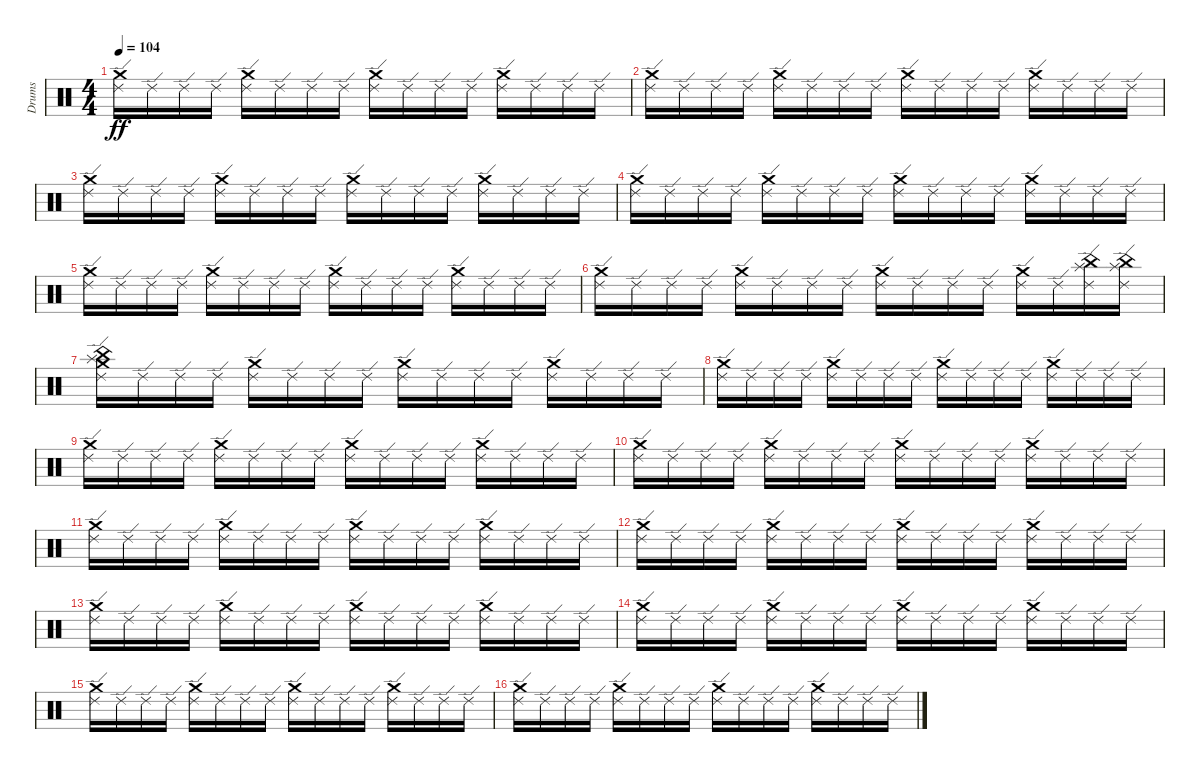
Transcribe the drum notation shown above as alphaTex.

\track ("Drums" "Drums") {instrument percussion}
\staff {score}
\articulation defaults
\ts (4 4)
\tempo 104
\clef neutral
\ks c
("Crash medium (hit)" "Ride (edge) 2").16{dy ff} "Ride (edge) 2".16 "Ride (edge) 2".16 "Ride (edge) 2".16 ("Crash medium (hit)" "Ride (edge) 2").16 "Ride (edge) 2".16 "Ride (edge) 2".16 "Ride (edge) 2".16 ("Crash medium (hit)" "Ride (edge) 2").16 "Ride (edge) 2".16 "Ride (edge) 2".16 "Ride (edge) 2".16 ("Crash medium (hit)" "Ride (edge) 2").16 "Ride (edge) 2".16 "Ride (edge) 2".16 "Ride (edge) 2".16 |
("Crash medium (hit)" "Ride (edge) 2").16 "Ride (edge) 2".16 "Ride (edge) 2".16 "Ride (edge) 2".16 ("Crash medium (hit)" "Ride (edge) 2").16 "Ride (edge) 2".16 "Ride (edge) 2".16 "Ride (edge) 2".16 ("Crash medium (hit)" "Ride (edge) 2").16 "Ride (edge) 2".16 "Ride (edge) 2".16 "Ride (edge) 2".16 ("Crash medium (hit)" "Ride (edge) 2").16 "Ride (edge) 2".16 "Ride (edge) 2".16 "Ride (edge) 2".16 |
("Crash medium (hit)" "Ride (edge) 2").16 "Ride (edge) 2".16 "Ride (edge) 2".16 "Ride (edge) 2".16 ("Crash medium (hit)" "Ride (edge) 2").16 "Ride (edge) 2".16 "Ride (edge) 2".16 "Ride (edge) 2".16 ("Crash medium (hit)" "Ride (edge) 2").16 "Ride (edge) 2".16 "Ride (edge) 2".16 "Ride (edge) 2".16 ("Crash medium (hit)" "Ride (edge) 2").16 "Ride (edge) 2".16 "Ride (edge) 2".16 "Ride (edge) 2".16 |
("Crash medium (hit)" "Ride (edge) 2").16 "Ride (edge) 2".16 "Ride (edge) 2".16 "Ride (edge) 2".16 ("Crash medium (hit)" "Ride (edge) 2").16 "Ride (edge) 2".16 "Ride (edge) 2".16 "Ride (edge) 2".16 ("Crash medium (hit)" "Ride (edge) 2").16 "Ride (edge) 2".16 "Ride (edge) 2".16 "Ride (edge) 2".16 ("Crash medium (hit)" "Ride (edge) 2").16 "Ride (edge) 2".16 "Ride (edge) 2".16 "Ride (edge) 2".16 |
("Crash medium (hit)" "Ride (edge) 2").16 "Ride (edge) 2".16 "Ride (edge) 2".16 "Ride (edge) 2".16 ("Crash medium (hit)" "Ride (edge) 2").16 "Ride (edge) 2".16 "Ride (edge) 2".16 "Ride (edge) 2".16 ("Crash medium (hit)" "Ride (edge) 2").16 "Ride (edge) 2".16 "Ride (edge) 2".16 "Ride (edge) 2".16 ("Crash medium (hit)" "Ride (edge) 2").16 "Ride (edge) 2".16 "Ride (edge) 2".16 "Ride (edge) 2".16 |
("Crash medium (hit)" "Ride (edge) 2").16 "Ride (edge) 2".16 "Ride (edge) 2".16 "Ride (edge) 2".16 ("Crash medium (hit)" "Ride (edge) 2").16 "Ride (edge) 2".16 "Ride (edge) 2".16 "Ride (edge) 2".16 ("Crash medium (hit)" "Ride (edge) 2").16 "Ride (edge) 2".16 "Ride (edge) 2".16 "Ride (edge) 2".16 ("Crash medium (hit)" "Ride (edge) 2").16 "Ride (edge) 2".16 ("China (hit)" "Splash (hit)" "Ride (edge) 2").16 ("China (hit)" "Splash (hit)" "Ride (edge) 2").16 |
("China (hit)" "Splash (hit)" "Crash medium (hit)" "Ride (edge) 2").16 "Ride (edge) 2".16 "Ride (edge) 2".16 "Ride (edge) 2".16 ("Crash medium (hit)" "Ride (edge) 2").16 "Ride (edge) 2".16 "Ride (edge) 2".16 "Ride (edge) 2".16 ("Crash medium (hit)" "Ride (edge) 2").16 "Ride (edge) 2".16 "Ride (edge) 2".16 "Ride (edge) 2".16 ("Crash medium (hit)" "Ride (edge) 2").16 "Ride (edge) 2".16 "Ride (edge) 2".16 "Ride (edge) 2".16 |
("Crash medium (hit)" "Ride (edge) 2").16 "Ride (edge) 2".16 "Ride (edge) 2".16 "Ride (edge) 2".16 ("Crash medium (hit)" "Ride (edge) 2").16 "Ride (edge) 2".16 "Ride (edge) 2".16 "Ride (edge) 2".16 ("Crash medium (hit)" "Ride (edge) 2").16 "Ride (edge) 2".16 "Ride (edge) 2".16 "Ride (edge) 2".16 ("Crash medium (hit)" "Ride (edge) 2").16 "Ride (edge) 2".16 "Ride (edge) 2".16 "Ride (edge) 2".16 |
("Crash medium (hit)" "Ride (edge) 2").16 "Ride (edge) 2".16 "Ride (edge) 2".16 "Ride (edge) 2".16 ("Crash medium (hit)" "Ride (edge) 2").16 "Ride (edge) 2".16 "Ride (edge) 2".16 "Ride (edge) 2".16 ("Crash medium (hit)" "Ride (edge) 2").16 "Ride (edge) 2".16 "Ride (edge) 2".16 "Ride (edge) 2".16 ("Crash medium (hit)" "Ride (edge) 2").16 "Ride (edge) 2".16 "Ride (edge) 2".16 "Ride (edge) 2".16 |
("Crash medium (hit)" "Ride (edge) 2").16 "Ride (edge) 2".16 "Ride (edge) 2".16 "Ride (edge) 2".16 ("Crash medium (hit)" "Ride (edge) 2").16 "Ride (edge) 2".16 "Ride (edge) 2".16 "Ride (edge) 2".16 ("Crash medium (hit)" "Ride (edge) 2").16 "Ride (edge) 2".16 "Ride (edge) 2".16 "Ride (edge) 2".16 ("Crash medium (hit)" "Ride (edge) 2").16 "Ride (edge) 2".16 "Ride (edge) 2".16 "Ride (edge) 2".16 |
("Crash medium (hit)" "Ride (edge) 2").16 "Ride (edge) 2".16 "Ride (edge) 2".16 "Ride (edge) 2".16 ("Crash medium (hit)" "Ride (edge) 2").16 "Ride (edge) 2".16 "Ride (edge) 2".16 "Ride (edge) 2".16 ("Crash medium (hit)" "Ride (edge) 2").16 "Ride (edge) 2".16 "Ride (edge) 2".16 "Ride (edge) 2".16 ("Crash medium (hit)" "Ride (edge) 2").16 "Ride (edge) 2".16 "Ride (edge) 2".16 "Ride (edge) 2".16 |
("Crash medium (hit)" "Ride (edge) 2").16 "Ride (edge) 2".16 "Ride (edge) 2".16 "Ride (edge) 2".16 ("Crash medium (hit)" "Ride (edge) 2").16 "Ride (edge) 2".16 "Ride (edge) 2".16 "Ride (edge) 2".16 ("Crash medium (hit)" "Ride (edge) 2").16 "Ride (edge) 2".16 "Ride (edge) 2".16 "Ride (edge) 2".16 ("Crash medium (hit)" "Ride (edge) 2").16 "Ride (edge) 2".16 "Ride (edge) 2".16 "Ride (edge) 2".16 |
("Crash medium (hit)" "Ride (edge) 2").16 "Ride (edge) 2".16 "Ride (edge) 2".16 "Ride (edge) 2".16 ("Crash medium (hit)" "Ride (edge) 2").16 "Ride (edge) 2".16 "Ride (edge) 2".16 "Ride (edge) 2".16 ("Crash medium (hit)" "Ride (edge) 2").16 "Ride (edge) 2".16 "Ride (edge) 2".16 "Ride (edge) 2".16 ("Crash medium (hit)" "Ride (edge) 2").16 "Ride (edge) 2".16 "Ride (edge) 2".16 "Ride (edge) 2".16 |
("Crash medium (hit)" "Ride (edge) 2").16 "Ride (edge) 2".16 "Ride (edge) 2".16 "Ride (edge) 2".16 ("Crash medium (hit)" "Ride (edge) 2").16 "Ride (edge) 2".16 "Ride (edge) 2".16 "Ride (edge) 2".16 ("Crash medium (hit)" "Ride (edge) 2").16 "Ride (edge) 2".16 "Ride (edge) 2".16 "Ride (edge) 2".16 ("Crash medium (hit)" "Ride (edge) 2").16 "Ride (edge) 2".16 "Ride (edge) 2".16 "Ride (edge) 2".16 |
("Crash medium (hit)" "Ride (edge) 2").16 "Ride (edge) 2".16 "Ride (edge) 2".16 "Ride (edge) 2".16 ("Crash medium (hit)" "Ride (edge) 2").16 "Ride (edge) 2".16 "Ride (edge) 2".16 "Ride (edge) 2".16 ("Crash medium (hit)" "Ride (edge) 2").16 "Ride (edge) 2".16 "Ride (edge) 2".16 "Ride (edge) 2".16 ("Crash medium (hit)" "Ride (edge) 2").16 "Ride (edge) 2".16 "Ride (edge) 2".16 "Ride (edge) 2".16 |
("Crash medium (hit)" "Ride (edge) 2").16 "Ride (edge) 2".16 "Ride (edge) 2".16 "Ride (edge) 2".16 ("Crash medium (hit)" "Ride (edge) 2").16 "Ride (edge) 2".16 "Ride (edge) 2".16 "Ride (edge) 2".16 ("Crash medium (hit)" "Ride (edge) 2").16 "Ride (edge) 2".16 "Ride (edge) 2".16 "Ride (edge) 2".16 ("Crash medium (hit)" "Ride (edge) 2").16 "Ride (edge) 2".16 "Ride (edge) 2".16 "Ride (edge) 2".16
